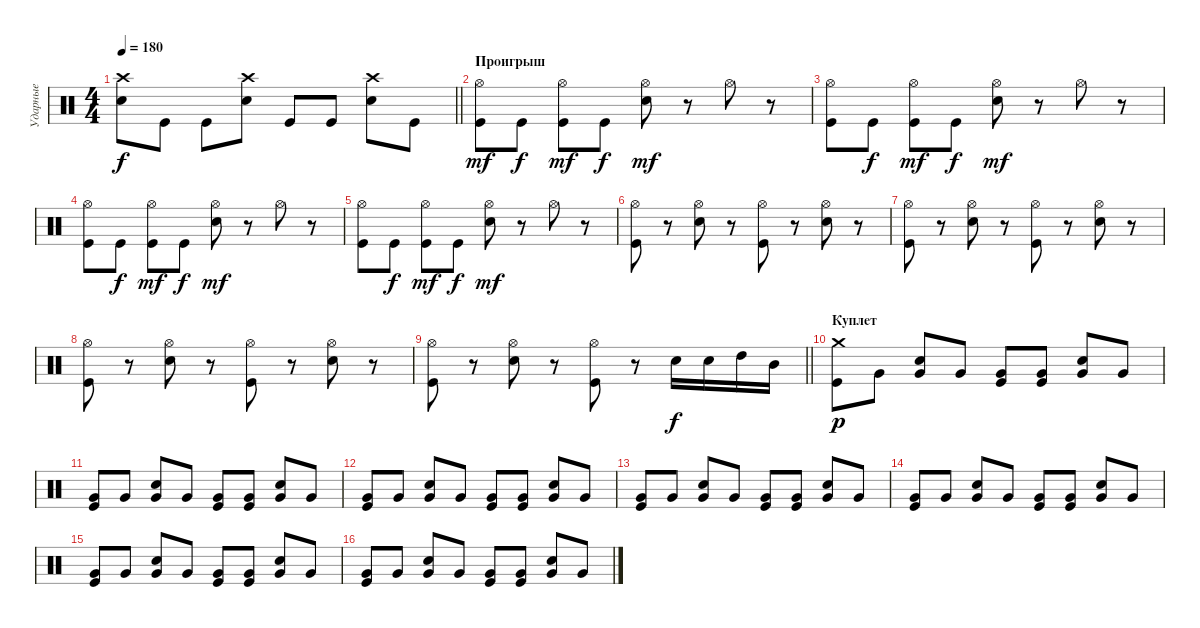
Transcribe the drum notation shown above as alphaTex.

\track ("Ударные" "Ударные") {instrument percussion}
\staff {score}
\articulation defaults
\ts (4 4)
\tempo 180
\clef neutral
\barLineRight lightlight
\ks c
("Electric Snare (hit)" "Crash high (hit)").8{dy f} "Kick (hit)".8 "Kick (hit)".8 ("Electric Snare (hit)" "Crash high (hit)").8 "Kick (hit)".8 "Kick (hit)".8 ("Electric Snare (hit)" "Crash high (hit)").8 "Kick (hit)".8 |
\section ("" "Проигрыш")
("Kick (hit)" "Hi-Hat (open)").8{dy mf} "Kick (hit)".8{dy f} ("Kick (hit)" "Hi-Hat (open)").8{dy mf} "Kick (hit)".8{dy f} ("Electric Snare (hit)" "Hi-Hat (open)").8{dy mf} r.8 "Hi-Hat (open)".8 r.8 |
("Kick (hit)" "Hi-Hat (open)").8 "Kick (hit)".8{dy f} ("Kick (hit)" "Hi-Hat (open)").8{dy mf} "Kick (hit)".8{dy f} ("Electric Snare (hit)" "Hi-Hat (open)").8{dy mf} r.8 "Hi-Hat (open)".8 r.8 |
("Kick (hit)" "Hi-Hat (open)").8 "Kick (hit)".8{dy f} ("Kick (hit)" "Hi-Hat (open)").8{dy mf} "Kick (hit)".8{dy f} ("Electric Snare (hit)" "Hi-Hat (open)").8{dy mf} r.8 "Hi-Hat (open)".8 r.8 |
("Kick (hit)" "Hi-Hat (open)").8 "Kick (hit)".8{dy f} ("Kick (hit)" "Hi-Hat (open)").8{dy mf} "Kick (hit)".8{dy f} ("Electric Snare (hit)" "Hi-Hat (open)").8{dy mf} r.8 "Hi-Hat (open)".8 r.8 |
("Hi-Hat (open)" "Kick (hit)").8 r.8 ("Hi-Hat (open)" "Electric Snare (hit)").8 r.8 ("Hi-Hat (open)" "Kick (hit)").8 r.8 ("Hi-Hat (open)" "Electric Snare (hit)").8 r.8 |
("Hi-Hat (open)" "Kick (hit)").8 r.8 ("Hi-Hat (open)" "Electric Snare (hit)").8 r.8 ("Hi-Hat (open)" "Kick (hit)").8 r.8 ("Hi-Hat (open)" "Electric Snare (hit)").8 r.8 |
("Hi-Hat (open)" "Kick (hit)").8 r.8 ("Hi-Hat (open)" "Electric Snare (hit)").8 r.8 ("Hi-Hat (open)" "Kick (hit)").8 r.8 ("Hi-Hat (open)" "Electric Snare (hit)").8 r.8 |
\barLineRight lightlight
("Hi-Hat (open)" "Kick (hit)").8 r.8 ("Hi-Hat (open)" "Electric Snare (hit)").8 r.8 ("Hi-Hat (open)" "Kick (hit)").8 r.8 "Electric Snare (hit)".16{dy f} "Electric Snare (hit)".16 "High Tom (hit)".16 "Mid Tom (hit)".16 |
\section ("" "Куплет")
("Crash medium (hit)" "Kick (hit)").8{dy p} "Very Low Tom (hit)".8 ("Very Low Tom (hit)" "Electric Snare (hit)").8 "Very Low Tom (hit)".8 ("Very Low Tom (hit)" "Kick (hit)").8 ("Very Low Tom (hit)" "Kick (hit)").8 ("Very Low Tom (hit)" "Electric Snare (hit)").8 "Very Low Tom (hit)".8 |
("Very Low Tom (hit)" "Kick (hit)").8 "Very Low Tom (hit)".8 ("Very Low Tom (hit)" "Electric Snare (hit)").8 "Very Low Tom (hit)".8 ("Very Low Tom (hit)" "Kick (hit)").8 ("Very Low Tom (hit)" "Kick (hit)").8 ("Very Low Tom (hit)" "Electric Snare (hit)").8 "Very Low Tom (hit)".8 |
("Very Low Tom (hit)" "Kick (hit)").8 "Very Low Tom (hit)".8 ("Very Low Tom (hit)" "Electric Snare (hit)").8 "Very Low Tom (hit)".8 ("Very Low Tom (hit)" "Kick (hit)").8 ("Very Low Tom (hit)" "Kick (hit)").8 ("Very Low Tom (hit)" "Electric Snare (hit)").8 "Very Low Tom (hit)".8 |
("Very Low Tom (hit)" "Kick (hit)").8 "Very Low Tom (hit)".8 ("Very Low Tom (hit)" "Electric Snare (hit)").8 "Very Low Tom (hit)".8 ("Very Low Tom (hit)" "Kick (hit)").8 ("Very Low Tom (hit)" "Kick (hit)").8 ("Very Low Tom (hit)" "Electric Snare (hit)").8 "Very Low Tom (hit)".8 |
("Very Low Tom (hit)" "Kick (hit)").8 "Very Low Tom (hit)".8 ("Very Low Tom (hit)" "Electric Snare (hit)").8 "Very Low Tom (hit)".8 ("Very Low Tom (hit)" "Kick (hit)").8 ("Very Low Tom (hit)" "Kick (hit)").8 ("Very Low Tom (hit)" "Electric Snare (hit)").8 "Very Low Tom (hit)".8 |
("Very Low Tom (hit)" "Kick (hit)").8 "Very Low Tom (hit)".8 ("Very Low Tom (hit)" "Electric Snare (hit)").8 "Very Low Tom (hit)".8 ("Very Low Tom (hit)" "Kick (hit)").8 ("Very Low Tom (hit)" "Kick (hit)").8 ("Very Low Tom (hit)" "Electric Snare (hit)").8 "Very Low Tom (hit)".8 |
("Very Low Tom (hit)" "Kick (hit)").8 "Very Low Tom (hit)".8 ("Very Low Tom (hit)" "Electric Snare (hit)").8 "Very Low Tom (hit)".8 ("Very Low Tom (hit)" "Kick (hit)").8 ("Very Low Tom (hit)" "Kick (hit)").8 ("Very Low Tom (hit)" "Electric Snare (hit)").8 "Very Low Tom (hit)".8
